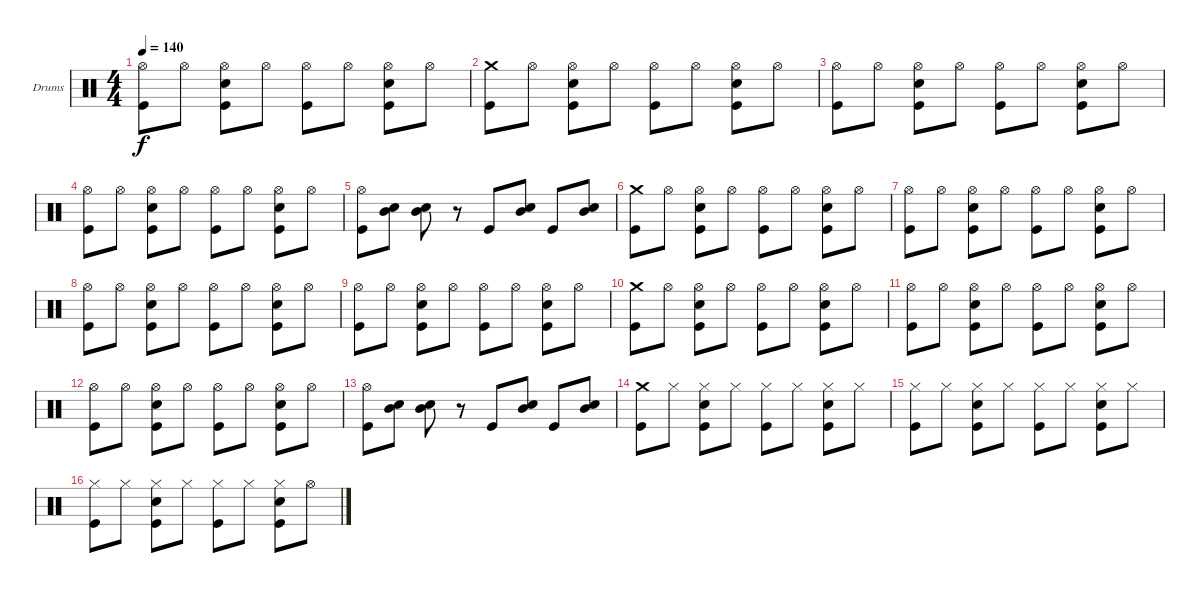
\bracketExtendMode groupsimilarinstruments
\firstSystemTrackNameOrientation horizontal
\otherSystemsTrackNameOrientation horizontal
\track ("Drumkit" "Drums") {instrument percussion}
\staff {score}
\articulation defaults
\ts (4 4)
\tempo 140
\clef neutral
\ks c
("Hi-Hat (open)" "Kick (hit)").8{dy f} "Hi-Hat (open)".8 ("Hi-Hat (open)" "Snare (hit) 2" "Kick (hit)").8 "Hi-Hat (open)".8 ("Hi-Hat (open)" "Kick (hit)").8 "Hi-Hat (open)".8 ("Hi-Hat (open)" "Snare (hit) 2" "Kick (hit)").8 "Hi-Hat (open)".8 |
("Crash medium (hit)" "Kick (hit)").8 "Hi-Hat (open)".8 ("Hi-Hat (open)" "Snare (hit) 2" "Kick (hit)").8 "Hi-Hat (open)".8 ("Hi-Hat (open)" "Kick (hit)").8 "Hi-Hat (open)".8 ("Hi-Hat (open)" "Snare (hit) 2" "Kick (hit)").8 "Hi-Hat (open)".8 |
("Hi-Hat (open)" "Kick (hit)").8 "Hi-Hat (open)".8 ("Hi-Hat (open)" "Snare (hit) 2" "Kick (hit)").8 "Hi-Hat (open)".8 ("Hi-Hat (open)" "Kick (hit)").8 "Hi-Hat (open)".8 ("Hi-Hat (open)" "Snare (hit) 2" "Kick (hit)").8 "Hi-Hat (open)".8 |
("Hi-Hat (open)" "Kick (hit)").8 "Hi-Hat (open)".8 ("Hi-Hat (open)" "Snare (hit) 2" "Kick (hit)").8 "Hi-Hat (open)".8 ("Hi-Hat (open)" "Kick (hit)").8 "Hi-Hat (open)".8 ("Hi-Hat (open)" "Snare (hit) 2" "Kick (hit)").8 "Hi-Hat (open)".8 |
("Hi-Hat (open)" "Kick (hit)").8 ("Mid Tom (hit)" "Snare (hit) 2").8 ("Mid Tom (hit)" "Snare (hit) 2").8 r.8 "Kick (hit)".8 ("Mid Tom (hit)" "Snare (hit) 2").8 "Kick (hit)".8 ("Mid Tom (hit)" "Snare (hit) 2").8 |
("Crash medium (hit)" "Kick (hit)").8 "Hi-Hat (open)".8 ("Hi-Hat (open)" "Snare (hit) 2" "Kick (hit)").8 "Hi-Hat (open)".8 ("Hi-Hat (open)" "Kick (hit)").8 "Hi-Hat (open)".8 ("Hi-Hat (open)" "Snare (hit) 2" "Kick (hit)").8 "Hi-Hat (open)".8 |
("Hi-Hat (open)" "Kick (hit)").8 "Hi-Hat (open)".8 ("Hi-Hat (open)" "Snare (hit) 2" "Kick (hit)").8 "Hi-Hat (open)".8 ("Hi-Hat (open)" "Kick (hit)").8 "Hi-Hat (open)".8 ("Hi-Hat (open)" "Snare (hit) 2" "Kick (hit)").8 "Hi-Hat (open)".8 |
("Hi-Hat (open)" "Kick (hit)").8 "Hi-Hat (open)".8 ("Hi-Hat (open)" "Snare (hit) 2" "Kick (hit)").8 "Hi-Hat (open)".8 ("Hi-Hat (open)" "Kick (hit)").8 "Hi-Hat (open)".8 ("Hi-Hat (open)" "Snare (hit) 2" "Kick (hit)").8 "Hi-Hat (open)".8 |
("Hi-Hat (open)" "Kick (hit)").8 "Hi-Hat (open)".8 ("Hi-Hat (open)" "Snare (hit) 2" "Kick (hit)").8 "Hi-Hat (open)".8 ("Hi-Hat (open)" "Kick (hit)").8 "Hi-Hat (open)".8 ("Hi-Hat (open)" "Snare (hit) 2" "Kick (hit)").8 "Hi-Hat (open)".8 |
("Crash medium (hit)" "Kick (hit)").8 "Hi-Hat (open)".8 ("Hi-Hat (open)" "Snare (hit) 2" "Kick (hit)").8 "Hi-Hat (open)".8 ("Hi-Hat (open)" "Kick (hit)").8 "Hi-Hat (open)".8 ("Hi-Hat (open)" "Snare (hit) 2" "Kick (hit)").8 "Hi-Hat (open)".8 |
("Hi-Hat (open)" "Kick (hit)").8 "Hi-Hat (open)".8 ("Hi-Hat (open)" "Snare (hit) 2" "Kick (hit)").8 "Hi-Hat (open)".8 ("Hi-Hat (open)" "Kick (hit)").8 "Hi-Hat (open)".8 ("Hi-Hat (open)" "Snare (hit) 2" "Kick (hit)").8 "Hi-Hat (open)".8 |
("Hi-Hat (open)" "Kick (hit)").8 "Hi-Hat (open)".8 ("Hi-Hat (open)" "Snare (hit) 2" "Kick (hit)").8 "Hi-Hat (open)".8 ("Hi-Hat (open)" "Kick (hit)").8 "Hi-Hat (open)".8 ("Hi-Hat (open)" "Snare (hit) 2" "Kick (hit)").8 "Hi-Hat (open)".8 |
("Hi-Hat (open)" "Kick (hit)").8 ("Mid Tom (hit)" "Snare (hit) 2").8 ("Mid Tom (hit)" "Snare (hit) 2").8 r.8 "Kick (hit)".8 ("Mid Tom (hit)" "Snare (hit) 2").8 "Kick (hit)".8 ("Mid Tom (hit)" "Snare (hit) 2").8 |
("Crash medium (hit)" "Kick (hit)").8 "Hi-Hat (closed)".8 ("Hi-Hat (closed)" "Snare (hit) 2" "Kick (hit)").8 "Hi-Hat (closed)".8 ("Hi-Hat (closed)" "Kick (hit)").8 "Hi-Hat (closed)".8 ("Hi-Hat (closed)" "Snare (hit) 2" "Kick (hit)").8 "Hi-Hat (closed)".8 |
("Hi-Hat (closed)" "Kick (hit)").8 "Hi-Hat (closed)".8 ("Hi-Hat (closed)" "Snare (hit) 2" "Kick (hit)").8 "Hi-Hat (closed)".8 ("Hi-Hat (closed)" "Kick (hit)").8 "Hi-Hat (closed)".8 ("Hi-Hat (closed)" "Snare (hit) 2" "Kick (hit)").8 "Hi-Hat (closed)".8 |
("Hi-Hat (closed)" "Kick (hit)").8 "Hi-Hat (closed)".8 ("Hi-Hat (closed)" "Snare (hit) 2" "Kick (hit)").8 "Hi-Hat (closed)".8 ("Hi-Hat (closed)" "Kick (hit)").8 "Hi-Hat (closed)".8 ("Hi-Hat (closed)" "Snare (hit) 2" "Kick (hit)").8 "Hi-Hat (open)".8
